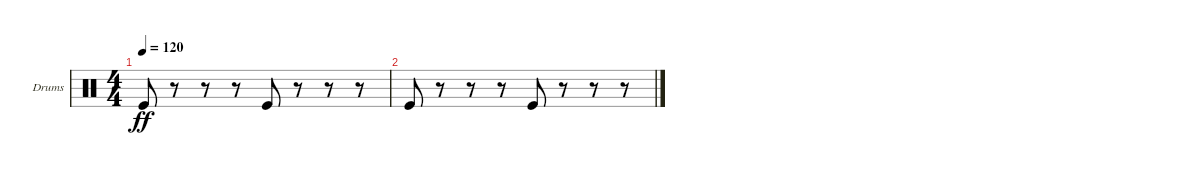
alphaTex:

\defaultSystemsLayout 4
\bracketExtendMode groupsimilarinstruments
\firstSystemTrackNameOrientation horizontal
\otherSystemsTrackNameOrientation horizontal
\track ("Cajon (Drum Box)" "Drums") {instrument percussion}
\staff {score}
\articulation defaults
\ts (4 4)
\tempo 120
\clef neutral
\ks c "Kick (hit)".8{dy ff}
r.8 r.8 r.8 "Kick (hit)".8 r.8 r.8 r.8 |
"Kick (hit)".8 r.8 r.8 r.8 "Kick (hit)".8 r.8 r.8 r.8
